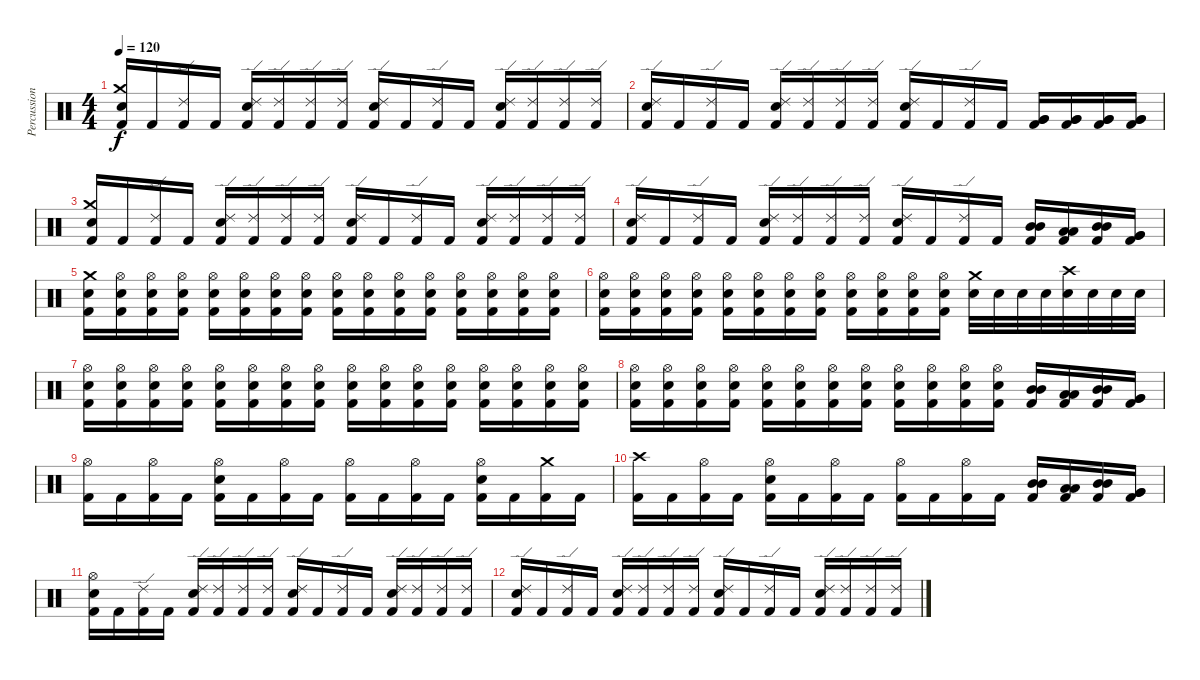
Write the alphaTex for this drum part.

\track ("Percussion" "Percussion") {instrument percussion}
\staff {score}
\articulation defaults
\ts (4 4)
\tempo 120
\clef neutral
\ks c
("Electric Snare (hit)" "Crash medium (hit)" "Kick (hit) 2").16{dy f} "Kick (hit) 2".16 ("Ride (edge) 2" "Kick (hit) 2").16 "Kick (hit) 2".16 ("Electric Snare (hit)" "Ride (edge) 2" "Kick (hit) 2").16 ("Ride (edge) 2" "Kick (hit) 2").16 ("Ride (edge) 2" "Kick (hit) 2").16 ("Ride (edge) 2" "Kick (hit) 2").16 ("Electric Snare (hit)" "Ride (edge) 2" "Kick (hit) 2").16 "Kick (hit) 2".16 ("Ride (edge) 2" "Kick (hit) 2").16 "Kick (hit) 2".16 ("Electric Snare (hit)" "Ride (edge) 2" "Kick (hit) 2").16 ("Ride (edge) 2" "Kick (hit) 2").16 ("Ride (edge) 2" "Kick (hit) 2").16 ("Ride (edge) 2" "Kick (hit) 2").16 |
("Electric Snare (hit)" "Ride (edge) 2" "Kick (hit) 2").16 "Kick (hit) 2".16 ("Ride (edge) 2" "Kick (hit) 2").16 "Kick (hit) 2".16 ("Electric Snare (hit)" "Ride (edge) 2" "Kick (hit) 2").16 ("Ride (edge) 2" "Kick (hit) 2").16 ("Ride (edge) 2" "Kick (hit) 2").16 ("Ride (edge) 2" "Kick (hit) 2").16 ("Electric Snare (hit)" "Ride (edge) 2" "Kick (hit) 2").16 "Kick (hit) 2".16 ("Ride (edge) 2" "Kick (hit) 2").16 "Kick (hit) 2".16 ("Very Low Tom (hit)" "Very Low Tom (hit)" "Kick (hit) 2").16 ("Very Low Tom (hit)" "Very Low Tom (hit)" "Kick (hit) 2").16 ("Very Low Tom (hit)" "Very Low Tom (hit)" "Kick (hit) 2").16 ("Very Low Tom (hit)" "Very Low Tom (hit)" "Kick (hit) 2").16 |
("Electric Snare (hit)" "Crash medium (hit)" "Kick (hit) 2").16 "Kick (hit) 2".16 ("Ride (edge) 2" "Kick (hit) 2").16 "Kick (hit) 2".16 ("Electric Snare (hit)" "Ride (edge) 2" "Kick (hit) 2").16 ("Ride (edge) 2" "Kick (hit) 2").16 ("Ride (edge) 2" "Kick (hit) 2").16 ("Ride (edge) 2" "Kick (hit) 2").16 ("Electric Snare (hit)" "Ride (edge) 2" "Kick (hit) 2").16 "Kick (hit) 2".16 ("Ride (edge) 2" "Kick (hit) 2").16 "Kick (hit) 2".16 ("Electric Snare (hit)" "Ride (edge) 2" "Kick (hit) 2").16 ("Ride (edge) 2" "Kick (hit) 2").16 ("Ride (edge) 2" "Kick (hit) 2").16 ("Ride (edge) 2" "Kick (hit) 2").16 |
("Electric Snare (hit)" "Ride (edge) 2" "Kick (hit) 2").16 "Kick (hit) 2".16 ("Ride (edge) 2" "Kick (hit) 2").16 "Kick (hit) 2".16 ("Electric Snare (hit)" "Ride (edge) 2" "Kick (hit) 2").16 ("Ride (edge) 2" "Kick (hit) 2").16 ("Ride (edge) 2" "Kick (hit) 2").16 ("Ride (edge) 2" "Kick (hit) 2").16 ("Electric Snare (hit)" "Ride (edge) 2" "Kick (hit) 2").16 "Kick (hit) 2".16 ("Ride (edge) 2" "Kick (hit) 2").16 "Kick (hit) 2".16 ("Mid Tom (hit)" "Mid Tom (hit)" "Kick (hit) 2").16 ("Low Tom (hit)" "Low Tom (hit)" "Kick (hit) 2").16 ("Mid Tom (hit)" "Mid Tom (hit)" "Kick (hit) 2").16 ("Very Low Tom (hit)" "Very Low Tom (hit)" "Kick (hit) 2").16 |
("Electric Snare (hit)" "Crash medium (hit)" "Kick (hit) 2").16 ("Electric Snare (hit)" "Hi-Hat (open)" "Kick (hit) 2").16 ("Electric Snare (hit)" "Hi-Hat (open)" "Kick (hit) 2").16 ("Electric Snare (hit)" "Hi-Hat (open)" "Kick (hit) 2").16 ("Electric Snare (hit)" "Hi-Hat (open)" "Kick (hit) 2").16 ("Electric Snare (hit)" "Hi-Hat (open)" "Kick (hit) 2").16 ("Electric Snare (hit)" "Hi-Hat (open)" "Kick (hit) 2").16 ("Electric Snare (hit)" "Hi-Hat (open)" "Kick (hit) 2").16 ("Electric Snare (hit)" "Hi-Hat (open)" "Kick (hit) 2").16 ("Electric Snare (hit)" "Hi-Hat (open)" "Kick (hit) 2").16 ("Electric Snare (hit)" "Hi-Hat (open)" "Kick (hit) 2").16 ("Electric Snare (hit)" "Hi-Hat (open)" "Kick (hit) 2").16 ("Electric Snare (hit)" "Hi-Hat (open)" "Kick (hit) 2").16 ("Electric Snare (hit)" "Hi-Hat (open)" "Kick (hit) 2").16 ("Electric Snare (hit)" "Hi-Hat (open)" "Kick (hit) 2").16 ("Electric Snare (hit)" "Hi-Hat (open)" "Kick (hit) 2").16 |
("Electric Snare (hit)" "Hi-Hat (open)" "Kick (hit) 2").16 ("Electric Snare (hit)" "Hi-Hat (open)" "Kick (hit) 2").16 ("Electric Snare (hit)" "Hi-Hat (open)" "Kick (hit) 2").16 ("Electric Snare (hit)" "Hi-Hat (open)" "Kick (hit) 2").16 ("Electric Snare (hit)" "Hi-Hat (open)" "Kick (hit) 2").16 ("Electric Snare (hit)" "Hi-Hat (open)" "Kick (hit) 2").16 ("Electric Snare (hit)" "Hi-Hat (open)" "Kick (hit) 2").16 ("Electric Snare (hit)" "Hi-Hat (open)" "Kick (hit) 2").16 ("Electric Snare (hit)" "Hi-Hat (open)" "Kick (hit) 2").16 ("Electric Snare (hit)" "Hi-Hat (open)" "Kick (hit) 2").16 ("Electric Snare (hit)" "Hi-Hat (open)" "Kick (hit) 2").16 ("Electric Snare (hit)" "Hi-Hat (open)" "Kick (hit) 2").16 ("Crash medium (hit)" "Electric Snare (hit)").32 "Electric Snare (hit)".32 "Electric Snare (hit)".32 "Electric Snare (hit)".32 ("Crash high (hit)" "Electric Snare (hit)").32 "Electric Snare (hit)".32 "Electric Snare (hit)".32 "Electric Snare (hit)".32 |
("Electric Snare (hit)" "Hi-Hat (open)" "Kick (hit) 2").16 ("Electric Snare (hit)" "Hi-Hat (open)" "Kick (hit) 2").16 ("Electric Snare (hit)" "Hi-Hat (open)" "Kick (hit) 2").16 ("Electric Snare (hit)" "Hi-Hat (open)" "Kick (hit) 2").16 ("Electric Snare (hit)" "Hi-Hat (open)" "Kick (hit) 2").16 ("Electric Snare (hit)" "Hi-Hat (open)" "Kick (hit) 2").16 ("Electric Snare (hit)" "Hi-Hat (open)" "Kick (hit) 2").16 ("Electric Snare (hit)" "Hi-Hat (open)" "Kick (hit) 2").16 ("Electric Snare (hit)" "Hi-Hat (open)" "Kick (hit) 2").16 ("Electric Snare (hit)" "Hi-Hat (open)" "Kick (hit) 2").16 ("Electric Snare (hit)" "Hi-Hat (open)" "Kick (hit) 2").16 ("Electric Snare (hit)" "Hi-Hat (open)" "Kick (hit) 2").16 ("Electric Snare (hit)" "Hi-Hat (open)" "Kick (hit) 2").16 ("Electric Snare (hit)" "Hi-Hat (open)" "Kick (hit) 2").16 ("Electric Snare (hit)" "Hi-Hat (open)" "Kick (hit) 2").16 ("Electric Snare (hit)" "Hi-Hat (open)" "Kick (hit) 2").16 |
("Electric Snare (hit)" "Hi-Hat (open)" "Kick (hit) 2").16 ("Electric Snare (hit)" "Hi-Hat (open)" "Kick (hit) 2").16 ("Electric Snare (hit)" "Hi-Hat (open)" "Kick (hit) 2").16 ("Electric Snare (hit)" "Hi-Hat (open)" "Kick (hit) 2").16 ("Electric Snare (hit)" "Hi-Hat (open)" "Kick (hit) 2").16 ("Electric Snare (hit)" "Hi-Hat (open)" "Kick (hit) 2").16 ("Electric Snare (hit)" "Hi-Hat (open)" "Kick (hit) 2").16 ("Electric Snare (hit)" "Hi-Hat (open)" "Kick (hit) 2").16 ("Electric Snare (hit)" "Hi-Hat (open)" "Kick (hit) 2").16 ("Electric Snare (hit)" "Hi-Hat (open)" "Kick (hit) 2").16 ("Electric Snare (hit)" "Hi-Hat (open)" "Kick (hit) 2").16 ("Electric Snare (hit)" "Hi-Hat (open)" "Kick (hit) 2").16 ("Mid Tom (hit)" "Mid Tom (hit)" "Kick (hit) 2").16 ("Low Tom (hit)" "Low Tom (hit)" "Kick (hit) 2").16 ("Mid Tom (hit)" "Mid Tom (hit)" "Kick (hit) 2").16 ("Very Low Tom (hit)" "Very Low Tom (hit)" "Kick (hit) 2").16 |
("Hi-Hat (open)" "Kick (hit) 2").16 "Kick (hit) 2".16 ("Hi-Hat (open)" "Kick (hit) 2").16 "Kick (hit) 2".16 ("Electric Snare (hit)" "Hi-Hat (open)" "Kick (hit) 2").16 "Kick (hit) 2".16 ("Hi-Hat (open)" "Kick (hit) 2").16 "Kick (hit) 2".16 ("Hi-Hat (open)" "Kick (hit) 2").16 "Kick (hit) 2".16 ("Hi-Hat (open)" "Kick (hit) 2").16 "Kick (hit) 2".16 ("Electric Snare (hit)" "Hi-Hat (open)" "Kick (hit) 2").16 "Kick (hit) 2".16 ("Crash medium (hit)" "Kick (hit) 2").16 "Kick (hit) 2".16 |
("Crash high (hit)" "Kick (hit) 2").16 "Kick (hit) 2".16 ("Hi-Hat (open)" "Kick (hit) 2").16 "Kick (hit) 2".16 ("Electric Snare (hit)" "Hi-Hat (open)" "Kick (hit) 2").16 "Kick (hit) 2".16 ("Hi-Hat (open)" "Kick (hit) 2").16 "Kick (hit) 2".16 ("Hi-Hat (open)" "Kick (hit) 2").16 "Kick (hit) 2".16 ("Hi-Hat (open)" "Kick (hit) 2").16 "Kick (hit) 2".16 ("Mid Tom (hit)" "Mid Tom (hit)" "Kick (hit) 2").16 ("Low Tom (hit)" "Low Tom (hit)" "Kick (hit) 2").16 ("Mid Tom (hit)" "Mid Tom (hit)" "Kick (hit) 2").16 ("Very Low Tom (hit)" "Very Low Tom (hit)" "Kick (hit) 2").16 |
("Electric Snare (hit)" "Hi-Hat (open)" "Kick (hit) 2").16 "Kick (hit) 2".16 ("Ride (edge) 2" "Kick (hit) 2").16 "Kick (hit) 2".16 ("Electric Snare (hit)" "Ride (edge) 2" "Kick (hit) 2").16 ("Ride (edge) 2" "Kick (hit) 2").16 ("Ride (edge) 2" "Kick (hit) 2").16 ("Ride (edge) 2" "Kick (hit) 2").16 ("Electric Snare (hit)" "Ride (edge) 2" "Kick (hit) 2").16 "Kick (hit) 2".16 ("Ride (edge) 2" "Kick (hit) 2").16 "Kick (hit) 2".16 ("Electric Snare (hit)" "Ride (edge) 2" "Kick (hit) 2").16 ("Ride (edge) 2" "Kick (hit) 2").16 ("Ride (edge) 2" "Kick (hit) 2").16 ("Ride (edge) 2" "Kick (hit) 2").16 |
("Electric Snare (hit)" "Ride (edge) 2" "Kick (hit) 2").16 "Kick (hit) 2".16 ("Ride (edge) 2" "Kick (hit) 2").16 "Kick (hit) 2".16 ("Electric Snare (hit)" "Ride (edge) 2" "Kick (hit) 2").16 ("Ride (edge) 2" "Kick (hit) 2").16 ("Ride (edge) 2" "Kick (hit) 2").16 ("Ride (edge) 2" "Kick (hit) 2").16 ("Electric Snare (hit)" "Ride (edge) 2" "Kick (hit) 2").16 "Kick (hit) 2".16 ("Ride (edge) 2" "Kick (hit) 2").16 "Kick (hit) 2".16 ("Electric Snare (hit)" "Ride (edge) 2" "Kick (hit) 2").16 ("Ride (edge) 2" "Kick (hit) 2").16 ("Ride (edge) 2" "Kick (hit) 2").16 ("Ride (edge) 2" "Kick (hit) 2").16
